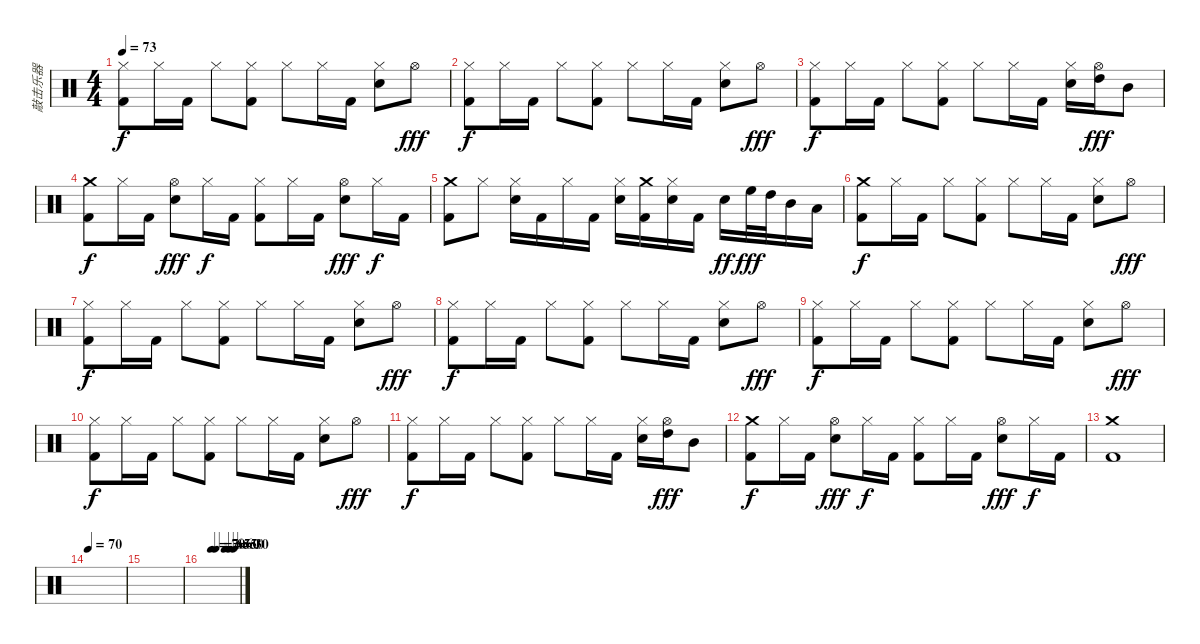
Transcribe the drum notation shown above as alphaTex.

\track ("敲击乐器" "敲击乐器") {instrument percussion}
\staff {score}
\articulation defaults
\ts (4 4)
\tempo 73
\clef neutral
\ks c
("Hi-Hat (closed)" "Kick (hit) 2").8{dy f} "Hi-Hat (closed)".16 "Kick (hit) 2".16 "Hi-Hat (closed)".8 ("Hi-Hat (closed)" "Kick (hit) 2").8 "Hi-Hat (closed)".8 "Hi-Hat (closed)".16 "Kick (hit) 2".16 ("Hi-Hat (closed)" "Electric Snare (hit)").8 "Hi-Hat (open)".8{dy fff} |
("Hi-Hat (closed)" "Kick (hit) 2").8{dy f} "Hi-Hat (closed)".16 "Kick (hit) 2".16 "Hi-Hat (closed)".8 ("Hi-Hat (closed)" "Kick (hit) 2").8 "Hi-Hat (closed)".8 "Hi-Hat (closed)".16 "Kick (hit) 2".16 ("Hi-Hat (closed)" "Electric Snare (hit)").8 "Hi-Hat (open)".8{dy fff} |
("Hi-Hat (closed)" "Kick (hit) 2").8{dy f} "Hi-Hat (closed)".16 "Kick (hit) 2".16 "Hi-Hat (closed)".8 ("Hi-Hat (closed)" "Kick (hit) 2").8 "Hi-Hat (closed)".8 "Hi-Hat (closed)".16 "Kick (hit) 2".16 ("Hi-Hat (closed)" "Electric Snare (hit)").16 ("Hi-Hat (open)" "High Tom (hit)").16{dy fff} "Mid Tom (hit)".8 |
("Crash medium (hit)" "Kick (hit) 2").8{dy f} "Hi-Hat (closed)".16 "Kick (hit) 2".16 ("Hi-Hat (open)" "Electric Snare (hit)").8{dy fff} "Hi-Hat (closed)".16{dy f} "Kick (hit) 2".16 ("Hi-Hat (closed)" "Kick (hit) 2").8 "Hi-Hat (closed)".16 "Kick (hit) 2".16 ("Hi-Hat (open)" "Electric Snare (hit)").8{dy fff} "Hi-Hat (closed)".16{dy f} "Kick (hit) 2".16 |
("Crash medium (hit)" "Kick (hit) 2").8 "Hi-Hat (closed)".8 ("Hi-Hat (closed)" "Electric Snare (hit)").16 "Kick (hit) 2".16 "Hi-Hat (closed)".16 "Kick (hit) 2".16 ("Hi-Hat (closed)" "Electric Snare (hit)").16 ("Crash medium (hit)" "Kick (hit) 2").16 ("Hi-Hat (closed)" "Electric Snare (hit)").16 "Kick (hit) 2".16 "Electric Snare (hit)".16{dy ff} "High Floor Tom (hit)".32{dy fff} "High Tom (hit)".32 "Mid Tom (hit)".16 "Low Tom (hit)".16 |
("Crash medium (hit)" "Kick (hit) 2").8{dy f} "Hi-Hat (closed)".16 "Kick (hit) 2".16 "Hi-Hat (closed)".8 ("Hi-Hat (closed)" "Kick (hit) 2").8 "Hi-Hat (closed)".8 "Hi-Hat (closed)".16 "Kick (hit) 2".16 ("Hi-Hat (closed)" "Electric Snare (hit)").8 "Hi-Hat (open)".8{dy fff} |
("Hi-Hat (closed)" "Kick (hit) 2").8{dy f} "Hi-Hat (closed)".16 "Kick (hit) 2".16 "Hi-Hat (closed)".8 ("Hi-Hat (closed)" "Kick (hit) 2").8 "Hi-Hat (closed)".8 "Hi-Hat (closed)".16 "Kick (hit) 2".16 ("Hi-Hat (closed)" "Electric Snare (hit)").8 "Hi-Hat (open)".8{dy fff} |
("Hi-Hat (closed)" "Kick (hit) 2").8{dy f} "Hi-Hat (closed)".16 "Kick (hit) 2".16 "Hi-Hat (closed)".8 ("Hi-Hat (closed)" "Kick (hit) 2").8 "Hi-Hat (closed)".8 "Hi-Hat (closed)".16 "Kick (hit) 2".16 ("Hi-Hat (closed)" "Electric Snare (hit)").8 "Hi-Hat (open)".8{dy fff} |
("Hi-Hat (closed)" "Kick (hit) 2").8{dy f} "Hi-Hat (closed)".16 "Kick (hit) 2".16 "Hi-Hat (closed)".8 ("Hi-Hat (closed)" "Kick (hit) 2").8 "Hi-Hat (closed)".8 "Hi-Hat (closed)".16 "Kick (hit) 2".16 ("Hi-Hat (closed)" "Electric Snare (hit)").8 "Hi-Hat (open)".8{dy fff} |
("Hi-Hat (closed)" "Kick (hit) 2").8{dy f} "Hi-Hat (closed)".16 "Kick (hit) 2".16 "Hi-Hat (closed)".8 ("Hi-Hat (closed)" "Kick (hit) 2").8 "Hi-Hat (closed)".8 "Hi-Hat (closed)".16 "Kick (hit) 2".16 ("Hi-Hat (closed)" "Electric Snare (hit)").8 "Hi-Hat (open)".8{dy fff} |
("Hi-Hat (closed)" "Kick (hit) 2").8{dy f} "Hi-Hat (closed)".16 "Kick (hit) 2".16 "Hi-Hat (closed)".8 ("Hi-Hat (closed)" "Kick (hit) 2").8 "Hi-Hat (closed)".8 "Hi-Hat (closed)".16 "Kick (hit) 2".16 ("Hi-Hat (closed)" "Electric Snare (hit)").16 ("Hi-Hat (open)" "High Tom (hit)").16{dy fff} "Mid Tom (hit)".8 |
("Crash medium (hit)" "Kick (hit) 2").8{dy f} "Hi-Hat (closed)".16 "Kick (hit) 2".16 ("Hi-Hat (open)" "Electric Snare (hit)").8{dy fff} "Hi-Hat (closed)".16{dy f} "Kick (hit) 2".16 ("Hi-Hat (closed)" "Kick (hit) 2").8 "Hi-Hat (closed)".16 "Kick (hit) 2".16 ("Hi-Hat (open)" "Electric Snare (hit)").8{dy fff} "Hi-Hat (closed)".16{dy f} "Kick (hit) 2".16 |
("Crash medium (hit)" "Kick (hit) 2").1 |
\tempo 70
|
|
\tempo (70 0.25)
\tempo (65 0.375)
\tempo (60 0.625)
\tempo (50 0.75)
\tempo (30 0.875)
